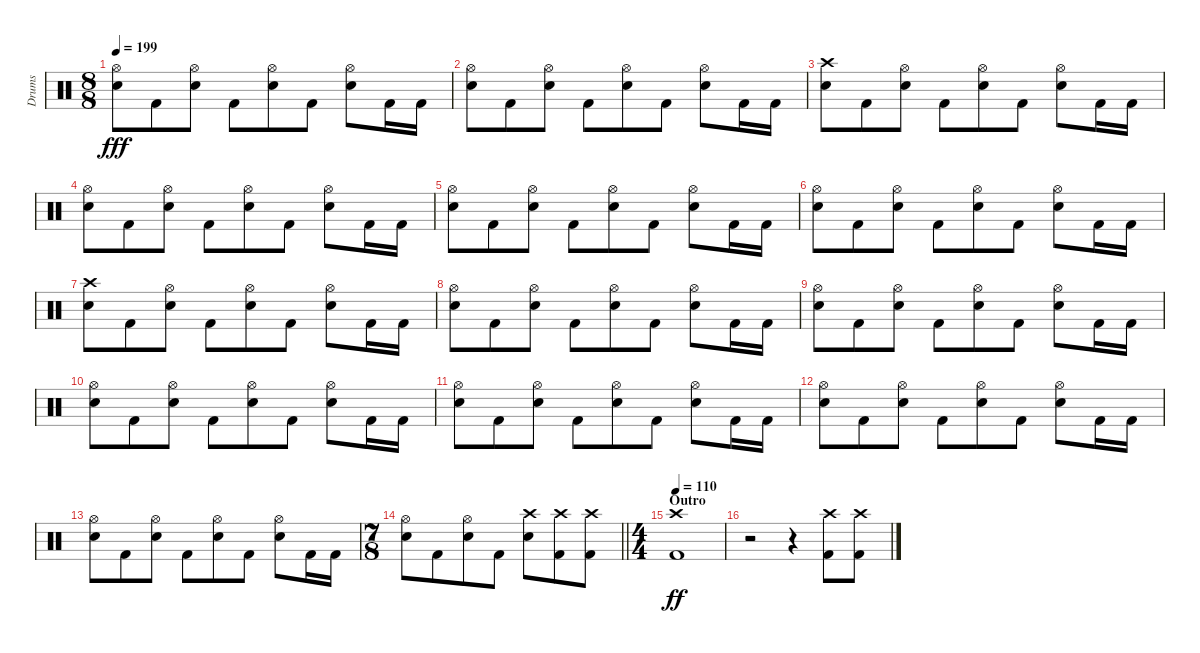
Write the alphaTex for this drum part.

\track ("Drums" "Drums") {instrument percussion}
\staff {score}
\articulation defaults
\ts (8 8)
\tempo 199
\clef neutral
\ks c
("Hi-Hat (open)" "Snare (hit) 2").8{dy fff} "Kick (hit) 2".8 ("Hi-Hat (open)" "Snare (hit) 2").8 "Kick (hit) 2".8 ("Hi-Hat (open)" "Snare (hit) 2").8 "Kick (hit) 2".8 ("Hi-Hat (open)" "Snare (hit) 2").8 "Kick (hit) 2".16 "Kick (hit) 2".16 |
("Hi-Hat (open)" "Snare (hit) 2").8 "Kick (hit) 2".8 ("Hi-Hat (open)" "Snare (hit) 2").8 "Kick (hit) 2".8 ("Hi-Hat (open)" "Snare (hit) 2").8 "Kick (hit) 2".8 ("Hi-Hat (open)" "Snare (hit) 2").8 "Kick (hit) 2".16 "Kick (hit) 2".16 |
("Crash high (hit)" "Snare (hit) 2").8 "Kick (hit) 2".8 ("Hi-Hat (open)" "Snare (hit) 2").8 "Kick (hit) 2".8 ("Hi-Hat (open)" "Snare (hit) 2").8 "Kick (hit) 2".8 ("Hi-Hat (open)" "Snare (hit) 2").8 "Kick (hit) 2".16 "Kick (hit) 2".16 |
("Hi-Hat (open)" "Snare (hit) 2").8 "Kick (hit) 2".8 ("Hi-Hat (open)" "Snare (hit) 2").8 "Kick (hit) 2".8 ("Hi-Hat (open)" "Snare (hit) 2").8 "Kick (hit) 2".8 ("Hi-Hat (open)" "Snare (hit) 2").8 "Kick (hit) 2".16 "Kick (hit) 2".16 |
("Hi-Hat (open)" "Snare (hit) 2").8 "Kick (hit) 2".8 ("Hi-Hat (open)" "Snare (hit) 2").8 "Kick (hit) 2".8 ("Hi-Hat (open)" "Snare (hit) 2").8 "Kick (hit) 2".8 ("Hi-Hat (open)" "Snare (hit) 2").8 "Kick (hit) 2".16 "Kick (hit) 2".16 |
("Hi-Hat (open)" "Snare (hit) 2").8 "Kick (hit) 2".8 ("Hi-Hat (open)" "Snare (hit) 2").8 "Kick (hit) 2".8 ("Hi-Hat (open)" "Snare (hit) 2").8 "Kick (hit) 2".8 ("Hi-Hat (open)" "Snare (hit) 2").8 "Kick (hit) 2".16 "Kick (hit) 2".16 |
("Crash high (hit)" "Snare (hit) 2").8 "Kick (hit) 2".8 ("Hi-Hat (open)" "Snare (hit) 2").8 "Kick (hit) 2".8 ("Hi-Hat (open)" "Snare (hit) 2").8 "Kick (hit) 2".8 ("Hi-Hat (open)" "Snare (hit) 2").8 "Kick (hit) 2".16 "Kick (hit) 2".16 |
("Hi-Hat (open)" "Snare (hit) 2").8 "Kick (hit) 2".8 ("Hi-Hat (open)" "Snare (hit) 2").8 "Kick (hit) 2".8 ("Hi-Hat (open)" "Snare (hit) 2").8 "Kick (hit) 2".8 ("Hi-Hat (open)" "Snare (hit) 2").8 "Kick (hit) 2".16 "Kick (hit) 2".16 |
("Hi-Hat (open)" "Snare (hit) 2").8 "Kick (hit) 2".8 ("Hi-Hat (open)" "Snare (hit) 2").8 "Kick (hit) 2".8 ("Hi-Hat (open)" "Snare (hit) 2").8 "Kick (hit) 2".8 ("Hi-Hat (open)" "Snare (hit) 2").8 "Kick (hit) 2".16 "Kick (hit) 2".16 |
("Hi-Hat (open)" "Snare (hit) 2").8 "Kick (hit) 2".8 ("Hi-Hat (open)" "Snare (hit) 2").8 "Kick (hit) 2".8 ("Hi-Hat (open)" "Snare (hit) 2").8 "Kick (hit) 2".8 ("Hi-Hat (open)" "Snare (hit) 2").8 "Kick (hit) 2".16 "Kick (hit) 2".16 |
("Hi-Hat (open)" "Snare (hit) 2").8 "Kick (hit) 2".8 ("Hi-Hat (open)" "Snare (hit) 2").8 "Kick (hit) 2".8 ("Hi-Hat (open)" "Snare (hit) 2").8 "Kick (hit) 2".8 ("Hi-Hat (open)" "Snare (hit) 2").8 "Kick (hit) 2".16 "Kick (hit) 2".16 |
("Hi-Hat (open)" "Snare (hit) 2").8 "Kick (hit) 2".8 ("Hi-Hat (open)" "Snare (hit) 2").8 "Kick (hit) 2".8 ("Hi-Hat (open)" "Snare (hit) 2").8 "Kick (hit) 2".8 ("Hi-Hat (open)" "Snare (hit) 2").8 "Kick (hit) 2".16 "Kick (hit) 2".16 |
("Hi-Hat (open)" "Snare (hit) 2").8 "Kick (hit) 2".8 ("Hi-Hat (open)" "Snare (hit) 2").8 "Kick (hit) 2".8 ("Hi-Hat (open)" "Snare (hit) 2").8 "Kick (hit) 2".8 ("Hi-Hat (open)" "Snare (hit) 2").8 "Kick (hit) 2".16 "Kick (hit) 2".16 |
\ts (7 8)
\barLineRight lightlight
("Hi-Hat (open)" "Snare (hit) 2").8 "Kick (hit) 2".8 ("Hi-Hat (open)" "Snare (hit) 2").8 "Kick (hit) 2".8 ("Crash high (hit)" "Snare (hit) 2").8 ("Crash high (hit)" "Kick (hit) 2").8 ("Crash high (hit)" "Kick (hit) 2").8 |
\ts (4 4)
\section ("" "Outro")
\tempo 110
("Crash high (hit)" "Kick (hit) 2").1{dy ff} |
r.2 r.4 ("Crash high (hit)" "Kick (hit) 2").8 ("Crash high (hit)" "Kick (hit) 2").8
